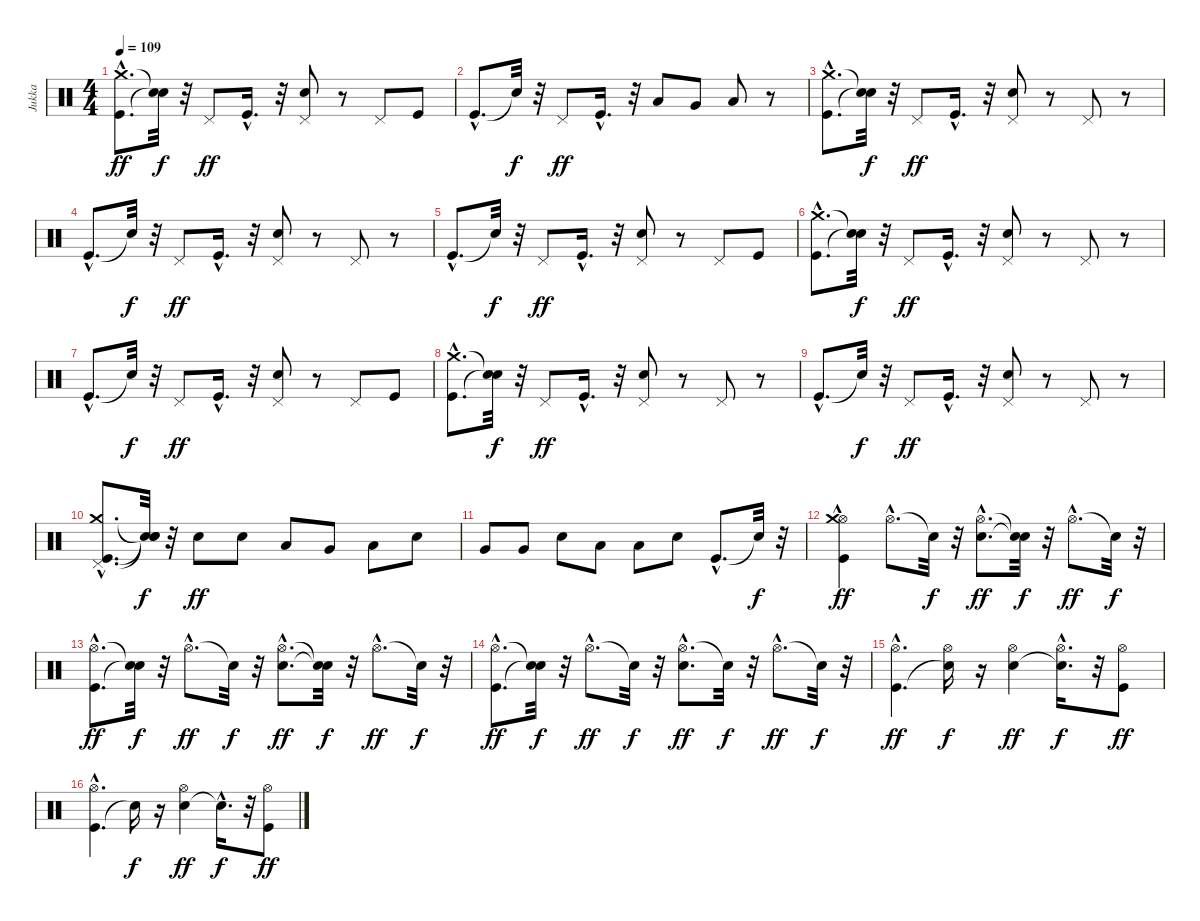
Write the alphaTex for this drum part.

\track ("Jukka" "Jukka") {instrument percussion}
\staff {score}
\articulation defaults
\ts (4 4)
\tempo 109
\clef neutral
\ks c
("Kick (hit)"{hac} "Crash medium (hit)"{hac}).8{d dy ff} ("Snare (hit)"{t} "Snare (hit)"{t}).32{dy f} r.32 "Pedal Hi-Hat (hit)".8{dy ff} "Kick (hit)"{hac}.16{d} r.32 ("Electric Snare (hit)" "Pedal Hi-Hat (hit)").8 r.8 "Pedal Hi-Hat (hit)".8 "Kick (hit)".8 |
"Kick (hit)"{hac}.8{d} "Snare (hit)"{t}.32{dy f} r.32 "Pedal Hi-Hat (hit)".8{dy ff} "Kick (hit)"{hac}.16{d} r.32 "Low Tom (hit)".8 "Very Low Tom (hit)".8 "Low Floor Tom (hit)".8 r.8 |
("Kick (hit)"{hac} "Crash medium (hit)"{hac}).8{d} ("Snare (hit)"{t} "Snare (hit)"{t}).32{dy f} r.32 "Pedal Hi-Hat (hit)".8{dy ff} "Kick (hit)"{hac}.16{d} r.32 ("Electric Snare (hit)" "Pedal Hi-Hat (hit)").8 r.8 "Pedal Hi-Hat (hit)".8 r.8 |
"Kick (hit)"{hac}.8{d} "Snare (hit)"{t}.32{dy f} r.32 "Pedal Hi-Hat (hit)".8{dy ff} "Kick (hit)"{hac}.16{d} r.32 ("Electric Snare (hit)" "Pedal Hi-Hat (hit)").8 r.8 "Pedal Hi-Hat (hit)".8 r.8 |
"Kick (hit)"{hac}.8{d} "Snare (hit)"{t}.32{dy f} r.32 "Pedal Hi-Hat (hit)".8{dy ff} "Kick (hit)"{hac}.16{d} r.32 ("Electric Snare (hit)" "Pedal Hi-Hat (hit)").8 r.8 "Pedal Hi-Hat (hit)".8 "Kick (hit)".8 |
("Kick (hit)"{hac} "Crash medium (hit)"{hac}).8{d} ("Snare (hit)"{t} "Snare (hit)"{t}).32{dy f} r.32 "Pedal Hi-Hat (hit)".8{dy ff} "Kick (hit)"{hac}.16{d} r.32 ("Electric Snare (hit)" "Pedal Hi-Hat (hit)").8 r.8 "Pedal Hi-Hat (hit)".8 r.8 |
"Kick (hit)"{hac}.8{d} "Snare (hit)"{t}.32{dy f} r.32 "Pedal Hi-Hat (hit)".8{dy ff} "Kick (hit)"{hac}.16{d} r.32 ("Electric Snare (hit)" "Pedal Hi-Hat (hit)").8 r.8 "Pedal Hi-Hat (hit)".8 "Kick (hit)".8 |
("Kick (hit)"{hac} "Crash medium (hit)"{hac}).8{d} ("Snare (hit)"{t} "Snare (hit)"{t}).32{dy f} r.32 "Pedal Hi-Hat (hit)".8{dy ff} "Kick (hit)"{hac}.16{d} r.32 ("Electric Snare (hit)" "Pedal Hi-Hat (hit)").8 r.8 "Pedal Hi-Hat (hit)".8 r.8 |
"Kick (hit)"{hac}.8{d} "Snare (hit)"{t}.32{dy f} r.32 "Pedal Hi-Hat (hit)".8{dy ff} "Kick (hit)"{hac}.16{d} r.32 ("Electric Snare (hit)" "Pedal Hi-Hat (hit)").8 r.8 "Pedal Hi-Hat (hit)".8 r.8 |
("Kick (hit)"{hac} "Pedal Hi-Hat (hit)"{hac} "Crash medium (hit)"{hac}).8{d} ("Snare (hit)"{t} "Snare (hit)"{t} "Snare (hit)"{t}).32{dy f} r.32 "Electric Snare (hit)".8{dy ff} "Electric Snare (hit)".8 "Low Tom (hit)".8 "Very Low Tom (hit)".8 "Low Floor Tom (hit)".8 "Electric Snare (hit)".8 |
"Very Low Tom (hit)".8 "Very Low Tom (hit)".8 "Electric Snare (hit)".8 "Low Floor Tom (hit)".8 "Low Floor Tom (hit)".8 "Electric Snare (hit)".8 "Kick (hit)"{hac}.8{d} "Snare (hit)"{t}.32{dy f} r.32 |
("Hi-Hat (open)"{hac} "Crash medium (hit)"{hac} "Kick (hit)").4{dy ff} "Hi-Hat (open)"{hac}.8{d} "Snare (hit)"{t}.32{dy f} r.32 ("Hi-Hat (open)"{hac} "Electric Snare (hit)"{hac}).8{d dy ff} ("Snare (hit)"{t} "Snare (hit)"{t}).32{dy f} r.32 "Hi-Hat (open)"{hac}.8{d dy ff} "Snare (hit)"{t}.32{dy f} r.32 |
("Hi-Hat (open)"{hac} "Kick (hit)"{hac}).8{d dy ff} ("Snare (hit)"{t} "Snare (hit)"{t}).32{dy f} r.32 "Hi-Hat (open)"{hac}.8{d dy ff} "Snare (hit)"{t}.32{dy f} r.32 ("Hi-Hat (open)"{hac} "Electric Snare (hit)"{hac}).8{d dy ff} ("Snare (hit)"{t} "Snare (hit)"{t}).32{dy f} r.32 "Hi-Hat (open)"{hac}.8{d dy ff} "Snare (hit)"{t}.32{dy f} r.32 |
("Hi-Hat (open)"{hac} "Kick (hit)"{hac}).8{d dy ff} ("Snare (hit)"{t} "Snare (hit)"{t}).32{dy f} r.32 "Hi-Hat (open)"{hac}.8{d dy ff} "Snare (hit)"{t}.32{dy f} r.32 ("Hi-Hat (open)"{hac} "Electric Snare (hit)"{hac}).8{d dy ff} "Snare (hit)"{t}.32{dy f} r.32 "Hi-Hat (open)"{hac}.8{d dy ff} "Snare (hit)"{t}.32{dy f} r.32 |
("Kick (hit)"{hac} "Hi-Hat (open)"{hac}).4{d dy ff} ("Snare (hit)"{t} "Hi-Hat (open)").16{dy f} r.16 ("Electric Snare (hit)" "Hi-Hat (open)").4{dy ff} ("Snare (hit)"{hac t} "Hi-Hat (open)"{hac}).16{d dy f} r.32 ("Kick (hit)" "Hi-Hat (open)").8{dy ff} |
("Kick (hit)"{hac} "Hi-Hat (open)"{hac}).4{d} "Snare (hit)"{t}.16{dy f} r.16 ("Electric Snare (hit)" "Hi-Hat (open)").4{dy ff} "Snare (hit)"{hac t}.16{d dy f} r.32 ("Kick (hit)" "Hi-Hat (open)").8{dy ff}
